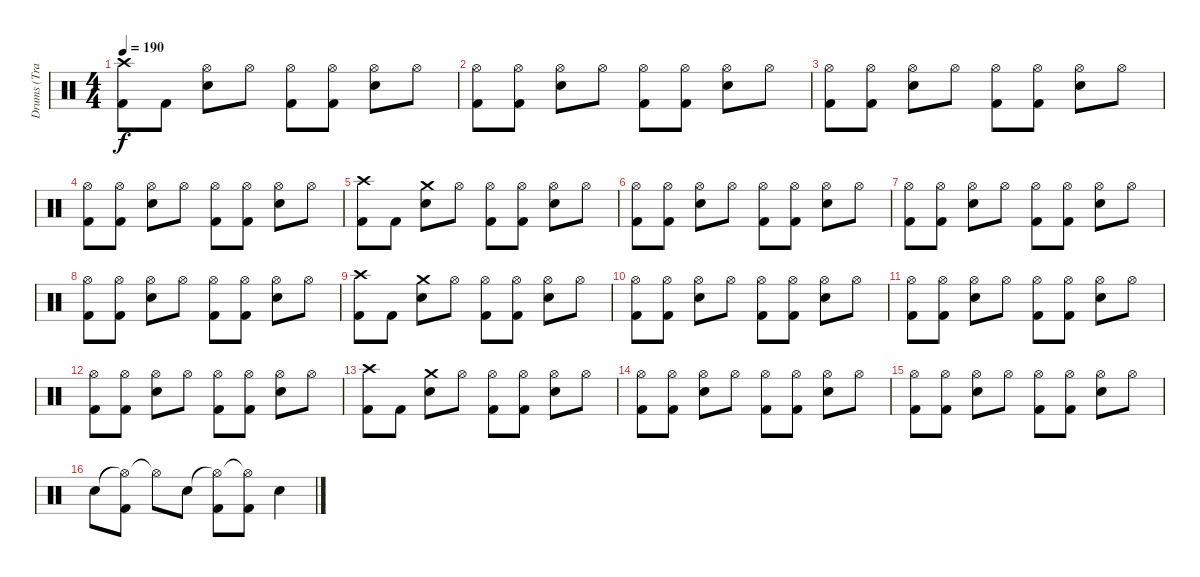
\track ("Drums (Travis)" "Drums (Tra") {instrument percussion}
\staff {score}
\articulation defaults
\ts (4 4)
\tempo 190
\clef neutral
\ks c
("Crash high (hit)" "Kick (hit) 2").8{dy f} "Kick (hit) 2".8 ("Hi-Hat (open)" "Electric Snare (hit)").8 "Hi-Hat (open)".8 ("Hi-Hat (open)" "Kick (hit) 2").8 ("Hi-Hat (open)" "Kick (hit) 2").8 ("Hi-Hat (open)" "Electric Snare (hit)").8 "Hi-Hat (open)".8 |
("Hi-Hat (open)" "Kick (hit) 2").8 ("Hi-Hat (open)" "Kick (hit) 2").8 ("Hi-Hat (open)" "Electric Snare (hit)").8 "Hi-Hat (open)".8 ("Hi-Hat (open)" "Kick (hit) 2").8 ("Hi-Hat (open)" "Kick (hit) 2").8 ("Hi-Hat (open)" "Electric Snare (hit)").8 "Hi-Hat (open)".8 |
("Hi-Hat (open)" "Kick (hit) 2").8 ("Hi-Hat (open)" "Kick (hit) 2").8 ("Hi-Hat (open)" "Electric Snare (hit)").8 "Hi-Hat (open)".8 ("Hi-Hat (open)" "Kick (hit) 2").8 ("Hi-Hat (open)" "Kick (hit) 2").8 ("Hi-Hat (open)" "Electric Snare (hit)").8 "Hi-Hat (open)".8 |
("Hi-Hat (open)" "Kick (hit) 2").8 ("Hi-Hat (open)" "Kick (hit) 2").8 ("Hi-Hat (open)" "Electric Snare (hit)").8 "Hi-Hat (open)".8 ("Hi-Hat (open)" "Kick (hit) 2").8 ("Hi-Hat (open)" "Kick (hit) 2").8 ("Hi-Hat (open)" "Electric Snare (hit)").8 "Hi-Hat (open)".8 |
("Crash high (hit)" "Kick (hit) 2").8 "Kick (hit) 2".8 ("Crash medium (hit)" "Electric Snare (hit)").8 "Hi-Hat (open)".8 ("Hi-Hat (open)" "Kick (hit) 2").8 ("Hi-Hat (open)" "Kick (hit) 2").8 ("Hi-Hat (open)" "Electric Snare (hit)").8 "Hi-Hat (open)".8 |
("Hi-Hat (open)" "Kick (hit) 2").8 ("Hi-Hat (open)" "Kick (hit) 2").8 ("Hi-Hat (open)" "Electric Snare (hit)").8 "Hi-Hat (open)".8 ("Hi-Hat (open)" "Kick (hit) 2").8 ("Hi-Hat (open)" "Kick (hit) 2").8 ("Hi-Hat (open)" "Electric Snare (hit)").8 "Hi-Hat (open)".8 |
("Hi-Hat (open)" "Kick (hit) 2").8 ("Hi-Hat (open)" "Kick (hit) 2").8 ("Hi-Hat (open)" "Electric Snare (hit)").8 "Hi-Hat (open)".8 ("Hi-Hat (open)" "Kick (hit) 2").8 ("Hi-Hat (open)" "Kick (hit) 2").8 ("Hi-Hat (open)" "Electric Snare (hit)").8 "Hi-Hat (open)".8 |
("Hi-Hat (open)" "Kick (hit) 2").8 ("Hi-Hat (open)" "Kick (hit) 2").8 ("Hi-Hat (open)" "Electric Snare (hit)").8 "Hi-Hat (open)".8 ("Hi-Hat (open)" "Kick (hit) 2").8 ("Hi-Hat (open)" "Kick (hit) 2").8 ("Hi-Hat (open)" "Electric Snare (hit)").8 "Hi-Hat (open)".8 |
("Crash high (hit)" "Kick (hit) 2").8 "Kick (hit) 2".8 ("Crash medium (hit)" "Electric Snare (hit)").8 "Hi-Hat (open)".8 ("Hi-Hat (open)" "Kick (hit) 2").8 ("Hi-Hat (open)" "Kick (hit) 2").8 ("Hi-Hat (open)" "Electric Snare (hit)").8 "Hi-Hat (open)".8 |
("Hi-Hat (open)" "Kick (hit) 2").8 ("Hi-Hat (open)" "Kick (hit) 2").8 ("Hi-Hat (open)" "Electric Snare (hit)").8 "Hi-Hat (open)".8 ("Hi-Hat (open)" "Kick (hit) 2").8 ("Hi-Hat (open)" "Kick (hit) 2").8 ("Hi-Hat (open)" "Electric Snare (hit)").8 "Hi-Hat (open)".8 |
("Hi-Hat (open)" "Kick (hit) 2").8 ("Hi-Hat (open)" "Kick (hit) 2").8 ("Hi-Hat (open)" "Electric Snare (hit)").8 "Hi-Hat (open)".8 ("Hi-Hat (open)" "Kick (hit) 2").8 ("Hi-Hat (open)" "Kick (hit) 2").8 ("Hi-Hat (open)" "Electric Snare (hit)").8 "Hi-Hat (open)".8 |
("Hi-Hat (open)" "Kick (hit) 2").8 ("Hi-Hat (open)" "Kick (hit) 2").8 ("Hi-Hat (open)" "Electric Snare (hit)").8 "Hi-Hat (open)".8 ("Hi-Hat (open)" "Kick (hit) 2").8 ("Hi-Hat (open)" "Kick (hit) 2").8 ("Hi-Hat (open)" "Electric Snare (hit)").8 "Hi-Hat (open)".8 |
("Crash high (hit)" "Kick (hit) 2").8 "Kick (hit) 2".8 ("Crash medium (hit)" "Electric Snare (hit)").8 "Hi-Hat (open)".8 ("Hi-Hat (open)" "Kick (hit) 2").8 ("Hi-Hat (open)" "Kick (hit) 2").8 ("Hi-Hat (open)" "Electric Snare (hit)").8 "Hi-Hat (open)".8 |
("Hi-Hat (open)" "Kick (hit) 2").8 ("Hi-Hat (open)" "Kick (hit) 2").8 ("Hi-Hat (open)" "Electric Snare (hit)").8 "Hi-Hat (open)".8 ("Hi-Hat (open)" "Kick (hit) 2").8 ("Hi-Hat (open)" "Kick (hit) 2").8 ("Hi-Hat (open)" "Electric Snare (hit)").8 "Hi-Hat (open)".8 |
("Hi-Hat (open)" "Kick (hit) 2").8 ("Hi-Hat (open)" "Kick (hit) 2").8 ("Hi-Hat (open)" "Electric Snare (hit)").8 "Hi-Hat (open)".8 ("Hi-Hat (open)" "Kick (hit) 2").8 ("Hi-Hat (open)" "Kick (hit) 2").8 ("Hi-Hat (open)" "Electric Snare (hit)").8 "Hi-Hat (open)".8 |
"Electric Snare (hit)".8 ("Hi-Hat (open)"{t} "Kick (hit) 2").8 "Hi-Hat (open)"{t}.8 "Electric Snare (hit)".8 ("Hi-Hat (open)"{t} "Kick (hit) 2").8 ("Hi-Hat (open)"{t} "Kick (hit) 2").8 "Electric Snare (hit)".4
